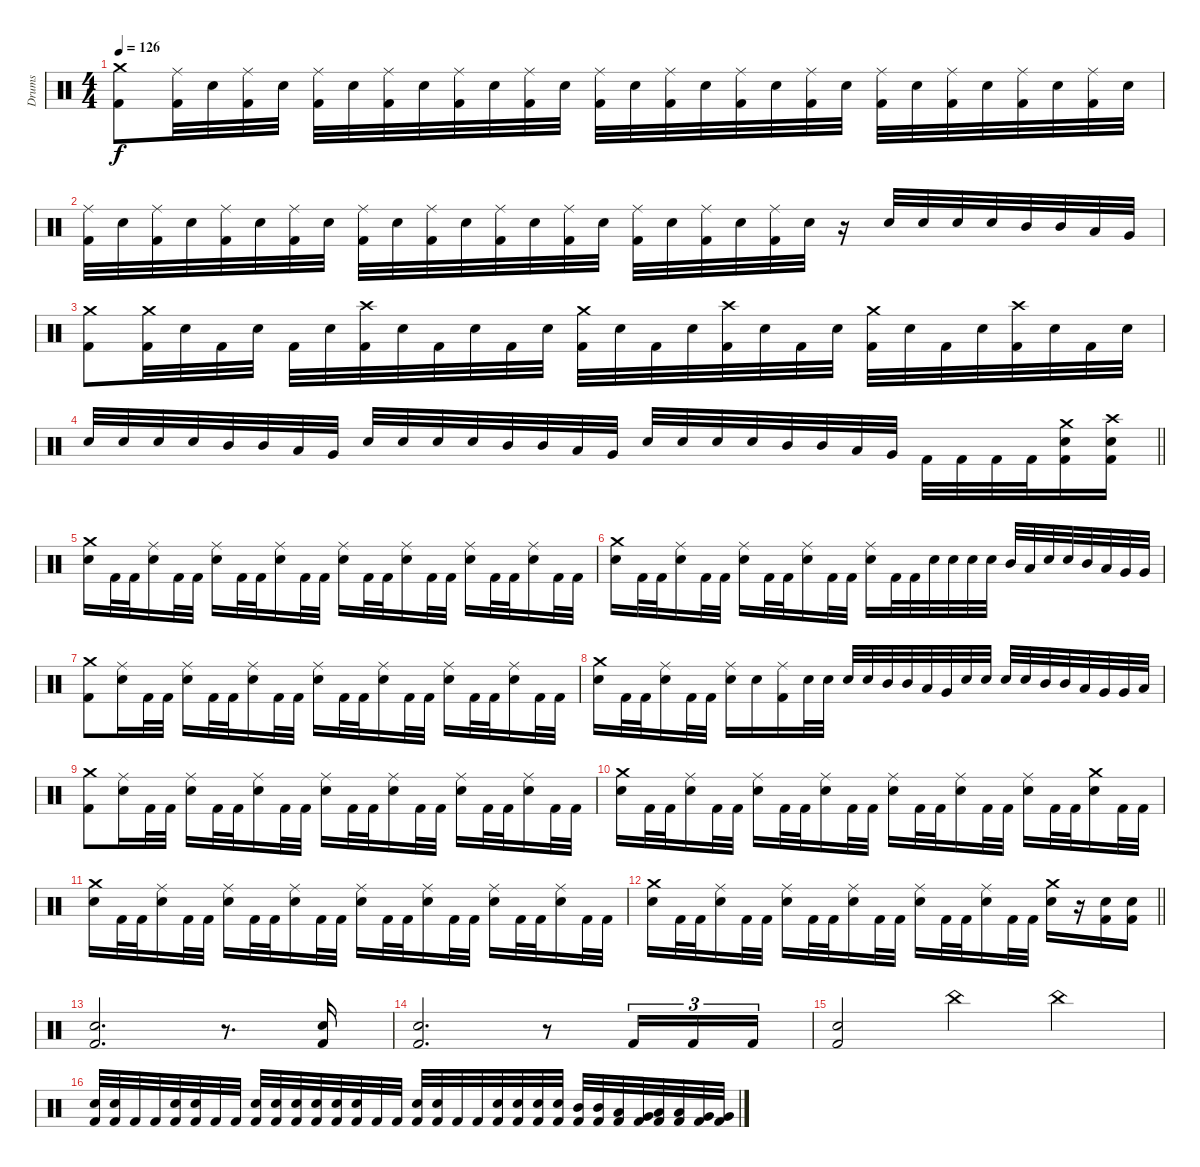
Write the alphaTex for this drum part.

\track ("Drums" "Drums") {instrument percussion}
\staff {score}
\articulation defaults
\ts (4 4)
\section ("" "")
\tempo 126
\clef neutral
\ks c
("Crash medium (hit)" "Kick (hit) 2").8{dy f} ("Ride (middle)" "Kick (hit) 2").32 "Electric Snare (hit)".32 ("Ride (middle)" "Kick (hit) 2").32 "Electric Snare (hit)".32 ("Ride (middle)" "Kick (hit) 2").32 "Electric Snare (hit)".32 ("Ride (middle)" "Kick (hit) 2").32 "Electric Snare (hit)".32 ("Ride (middle)" "Kick (hit) 2").32 "Electric Snare (hit)".32 ("Ride (middle)" "Kick (hit) 2").32 "Electric Snare (hit)".32 ("Ride (middle)" "Kick (hit) 2").32 "Electric Snare (hit)".32 ("Ride (middle)" "Kick (hit) 2").32 "Electric Snare (hit)".32 ("Ride (middle)" "Kick (hit) 2").32 "Electric Snare (hit)".32 ("Ride (middle)" "Kick (hit) 2").32 "Electric Snare (hit)".32 ("Ride (middle)" "Kick (hit) 2").32 "Electric Snare (hit)".32 ("Ride (middle)" "Kick (hit) 2").32 "Electric Snare (hit)".32 ("Ride (middle)" "Kick (hit) 2").32 "Electric Snare (hit)".32 ("Ride (middle)" "Kick (hit) 2").32 "Electric Snare (hit)".32 |
("Ride (middle)" "Kick (hit) 2").32 "Electric Snare (hit)".32 ("Ride (middle)" "Kick (hit) 2").32 "Electric Snare (hit)".32 ("Ride (middle)" "Kick (hit) 2").32 "Electric Snare (hit)".32 ("Ride (middle)" "Kick (hit) 2").32 "Electric Snare (hit)".32 ("Ride (middle)" "Kick (hit) 2").32 "Electric Snare (hit)".32 ("Ride (middle)" "Kick (hit) 2").32 "Electric Snare (hit)".32 ("Ride (middle)" "Kick (hit) 2").32 "Electric Snare (hit)".32 ("Ride (middle)" "Kick (hit) 2").32 "Electric Snare (hit)".32 ("Ride (middle)" "Kick (hit) 2").32 "Electric Snare (hit)".32 ("Ride (middle)" "Kick (hit) 2").32 "Electric Snare (hit)".32 ("Ride (middle)" "Kick (hit) 2").32 "Electric Snare (hit)".32 r.16 "Electric Snare (hit)".32 "Electric Snare (hit)".32 "Electric Snare (hit)".32 "Electric Snare (hit)".32 "Mid Tom (hit)".32 "Mid Tom (hit)".32 "Low Tom (hit)".32 "Very Low Tom (hit)".32 |
("Crash medium (hit)" "Kick (hit) 2").8 ("Crash medium (hit)" "Kick (hit) 2").32 "Electric Snare (hit)".32 "Kick (hit) 2".32 "Electric Snare (hit)".32 "Kick (hit) 2".32 "Electric Snare (hit)".32 ("Crash high (hit)" "Kick (hit) 2").32 "Electric Snare (hit)".32 "Kick (hit) 2".32 "Electric Snare (hit)".32 "Kick (hit) 2".32 "Electric Snare (hit)".32 ("Crash medium (hit)" "Kick (hit) 2").32 "Electric Snare (hit)".32 "Kick (hit) 2".32 "Electric Snare (hit)".32 ("Crash high (hit)" "Kick (hit) 2").32 "Electric Snare (hit)".32 "Kick (hit) 2".32 "Electric Snare (hit)".32 ("Crash medium (hit)" "Kick (hit) 2").32 "Electric Snare (hit)".32 "Kick (hit) 2".32 "Electric Snare (hit)".32 ("Crash high (hit)" "Kick (hit) 2").32 "Electric Snare (hit)".32 "Kick (hit) 2".32 "Electric Snare (hit)".32 |
\barLineRight lightlight "Electric Snare (hit)".32 "Electric Snare (hit)".32 "Electric Snare (hit)".32 "Electric Snare (hit)".32 "Mid Tom (hit)".32 "Mid Tom (hit)".32 "Low Tom (hit)".32 "Very Low Tom (hit)".32 "Electric Snare (hit)".32 "Electric Snare (hit)".32 "Electric Snare (hit)".32 "Electric Snare (hit)".32 "Mid Tom (hit)".32 "Mid Tom (hit)".32 "Low Tom (hit)".32 "Very Low Tom (hit)".32 "Electric Snare (hit)".32 "Electric Snare (hit)".32 "Electric Snare (hit)".32 "Electric Snare (hit)".32 "Mid Tom (hit)".32 "Mid Tom (hit)".32 "Low Tom (hit)".32 "Very Low Tom (hit)".32 "Kick (hit) 2".32 "Kick (hit) 2".32 "Kick (hit) 2".32 "Kick (hit) 2".32
("Crash medium (hit)" "Electric Snare (hit)" "Kick (hit) 2").16 ("Crash high (hit)" "Electric Snare (hit)" "Kick (hit) 2").16 |
\section ("" "")
("Crash medium (hit)" "Electric Snare (hit)").16 "Kick (hit) 2".32 "Kick (hit) 2".32 ("Ride (middle)" "Electric Snare (hit)").16 "Kick (hit) 2".32 "Kick (hit) 2".32 ("Ride (middle)" "Electric Snare (hit)").16 "Kick (hit) 2".32 "Kick (hit) 2".32 ("Ride (middle)" "Electric Snare (hit)").16 "Kick (hit) 2".32 "Kick (hit) 2".32 ("Ride (middle)" "Electric Snare (hit)").16 "Kick (hit) 2".32 "Kick (hit) 2".32 ("Ride (middle)" "Electric Snare (hit)").16 "Kick (hit) 2".32 "Kick (hit) 2".32 ("Ride (middle)" "Electric Snare (hit)").16 "Kick (hit) 2".32 "Kick (hit) 2".32 ("Ride (middle)" "Electric Snare (hit)").16 "Kick (hit) 2".32 "Kick (hit) 2".32 |
("Crash medium (hit)" "Electric Snare (hit)").16 "Kick (hit) 2".32 "Kick (hit) 2".32 ("Ride (middle)" "Electric Snare (hit)").16 "Kick (hit) 2".32 "Kick (hit) 2".32 ("Ride (middle)" "Electric Snare (hit)").16 "Kick (hit) 2".32 "Kick (hit) 2".32 ("Ride (middle)" "Electric Snare (hit)").16 "Kick (hit) 2".32 "Kick (hit) 2".32 ("Ride (middle)" "Electric Snare (hit)").16 "Kick (hit) 2".32 "Kick (hit) 2".32 "Electric Snare (hit)".32 "Electric Snare (hit)".32 "Electric Snare (hit)".32 "Electric Snare (hit)".32 "Mid Tom (hit)".32 "Low Tom (hit)".32 "Electric Snare (hit)".32 "Electric Snare (hit)".32 "Mid Tom (hit)".32 "Low Tom (hit)".32 "Very Low Tom (hit)".32 "Very Low Tom (hit)".32 |
("Crash medium (hit)" "Kick (hit) 2").8 ("Ride (middle)" "Electric Snare (hit)").16 "Kick (hit) 2".32 "Kick (hit) 2".32 ("Ride (middle)" "Electric Snare (hit)").16 "Kick (hit) 2".32 "Kick (hit) 2".32 ("Ride (middle)" "Electric Snare (hit)").16 "Kick (hit) 2".32 "Kick (hit) 2".32 ("Ride (middle)" "Electric Snare (hit)").16 "Kick (hit) 2".32 "Kick (hit) 2".32 ("Ride (middle)" "Electric Snare (hit)").16 "Kick (hit) 2".32 "Kick (hit) 2".32 ("Ride (middle)" "Electric Snare (hit)").16 "Kick (hit) 2".32 "Kick (hit) 2".32 ("Ride (middle)" "Electric Snare (hit)").16 "Kick (hit) 2".32 "Kick (hit) 2".32 |
("Crash medium (hit)" "Electric Snare (hit)").16 "Kick (hit) 2".32 "Kick (hit) 2".32 ("Ride (middle)" "Electric Snare (hit)").16 "Kick (hit) 2".32 "Kick (hit) 2".32 ("Ride (middle)" "Electric Snare (hit)").16 "Electric Snare (hit)".16 ("Ride (middle)" "Kick (hit) 2").16 "Electric Snare (hit)".32 "Electric Snare (hit)".32 "Electric Snare (hit)".32 "Electric Snare (hit)".32 "Mid Tom (hit)".32 "Mid Tom (hit)".32 "Low Tom (hit)".32 "Very Low Tom (hit)".32 "Electric Snare (hit)".32 "Electric Snare (hit)".32 "Electric Snare (hit)".32 "Electric Snare (hit)".32 "Mid Tom (hit)".32 "Mid Tom (hit)".32 "Low Tom (hit)".32 "Very Low Tom (hit)".32 "Very Low Tom (hit)".32 "Low Floor Tom (hit)".32 |
("Crash medium (hit)" "Kick (hit) 2").8 ("Ride (middle)" "Electric Snare (hit)").16 "Kick (hit) 2".32 "Kick (hit) 2".32 ("Ride (middle)" "Electric Snare (hit)").16 "Kick (hit) 2".32 "Kick (hit) 2".32 ("Ride (middle)" "Electric Snare (hit)").16 "Kick (hit) 2".32 "Kick (hit) 2".32 ("Ride (middle)" "Electric Snare (hit)").16 "Kick (hit) 2".32 "Kick (hit) 2".32 ("Ride (middle)" "Electric Snare (hit)").16 "Kick (hit) 2".32 "Kick (hit) 2".32 ("Ride (middle)" "Electric Snare (hit)").16 "Kick (hit) 2".32 "Kick (hit) 2".32 ("Ride (middle)" "Electric Snare (hit)").16 "Kick (hit) 2".32 "Kick (hit) 2".32 |
("Crash medium (hit)" "Electric Snare (hit)").16 "Kick (hit) 2".32 "Kick (hit) 2".32 ("Ride (middle)" "Electric Snare (hit)").16 "Kick (hit) 2".32 "Kick (hit) 2".32 ("Ride (middle)" "Electric Snare (hit)").16 "Kick (hit) 2".32 "Kick (hit) 2".32 ("Ride (middle)" "Electric Snare (hit)").16 "Kick (hit) 2".32 "Kick (hit) 2".32 ("Ride (middle)" "Electric Snare (hit)").16 "Kick (hit) 2".32 "Kick (hit) 2".32 ("Ride (middle)" "Electric Snare (hit)").16 "Kick (hit) 2".32 "Kick (hit) 2".32 ("Ride (middle)" "Electric Snare (hit)").16 "Kick (hit) 2".32 "Kick (hit) 2".32 ("Crash medium (hit)" "Electric Snare (hit)").16 "Kick (hit) 2".32 "Kick (hit) 2".32 |
("Crash medium (hit)" "Electric Snare (hit)").16 "Kick (hit) 2".32 "Kick (hit) 2".32 ("Ride (middle)" "Electric Snare (hit)").16 "Kick (hit) 2".32 "Kick (hit) 2".32 ("Ride (middle)" "Electric Snare (hit)").16 "Kick (hit) 2".32 "Kick (hit) 2".32 ("Ride (middle)" "Electric Snare (hit)").16 "Kick (hit) 2".32 "Kick (hit) 2".32 ("Ride (middle)" "Electric Snare (hit)").16 "Kick (hit) 2".32 "Kick (hit) 2".32 ("Ride (middle)" "Electric Snare (hit)").16 "Kick (hit) 2".32 "Kick (hit) 2".32 ("Ride (middle)" "Electric Snare (hit)").16 "Kick (hit) 2".32 "Kick (hit) 2".32 ("Ride (middle)" "Electric Snare (hit)").16 "Kick (hit) 2".32 "Kick (hit) 2".32 |
\barLineRight lightlight
("Crash medium (hit)" "Electric Snare (hit)").16 "Kick (hit) 2".32 "Kick (hit) 2".32 ("Ride (middle)" "Electric Snare (hit)").16 "Kick (hit) 2".32 "Kick (hit) 2".32 ("Ride (middle)" "Electric Snare (hit)").16 "Kick (hit) 2".32 "Kick (hit) 2".32 ("Ride (middle)" "Electric Snare (hit)").16 "Kick (hit) 2".32 "Kick (hit) 2".32 ("Ride (middle)" "Electric Snare (hit)").16 "Kick (hit) 2".32 "Kick (hit) 2".32 ("Ride (middle)" "Electric Snare (hit)").16 "Kick (hit) 2".32 "Kick (hit) 2".32 ("Crash medium (hit)" "Electric Snare (hit)").16 r.16 ("Electric Snare (hit)" "Kick (hit) 2").16 ("Electric Snare (hit)" "Kick (hit) 2").16 |
\section ("" "")
("Electric Snare (hit)" "Kick (hit) 2").2{d} r.8{d} ("Electric Snare (hit)" "Kick (hit) 2").16 |
("Electric Snare (hit)" "Kick (hit) 2").2{d} r.8 "Kick (hit) 2".16{tu (3 2)} "Kick (hit) 2".16{tu (3 2)} "Kick (hit) 2".16{tu (3 2)} |
("Electric Snare (hit)" "Kick (hit) 2").2 "China (hit)".4 "China (hit)".4 |
("Electric Snare (hit)" "Kick (hit) 2").32 ("Electric Snare (hit)" "Kick (hit) 2").32 "Kick (hit) 2".32 "Kick (hit) 2".32 ("Electric Snare (hit)" "Kick (hit) 2").32 ("Electric Snare (hit)" "Kick (hit) 2").32 "Kick (hit) 2".32 "Kick (hit) 2".32 ("Electric Snare (hit)" "Kick (hit) 2").32 ("Electric Snare (hit)" "Kick (hit) 2").32 ("Electric Snare (hit)" "Kick (hit) 2").32 ("Electric Snare (hit)" "Kick (hit) 2").32 ("Electric Snare (hit)" "Kick (hit) 2").32 ("Electric Snare (hit)" "Kick (hit) 2").32 "Kick (hit) 2".32 "Kick (hit) 2".32 ("Electric Snare (hit)" "Kick (hit) 2").32 ("Electric Snare (hit)" "Kick (hit) 2").32 "Kick (hit) 2".32 "Kick (hit) 2".32 ("Electric Snare (hit)" "Kick (hit) 2").32 ("Electric Snare (hit)" "Kick (hit) 2").32 ("Electric Snare (hit)" "Kick (hit) 2").32 ("Electric Snare (hit)" "Kick (hit) 2").32 ("Mid Tom (hit)" "Kick (hit) 2").32 ("Mid Tom (hit)" "Kick (hit) 2").32 ("Low Tom (hit)" "Kick (hit) 2").32 ("Very Low Tom (hit)" "Kick (hit) 2").32 ("Low Tom (hit)" "Kick (hit) 2").32 ("Low Tom (hit)" "Kick (hit) 2").32 ("Very Low Tom (hit)" "Kick (hit) 2").32 ("Very Low Tom (hit)" "Kick (hit) 2").32
